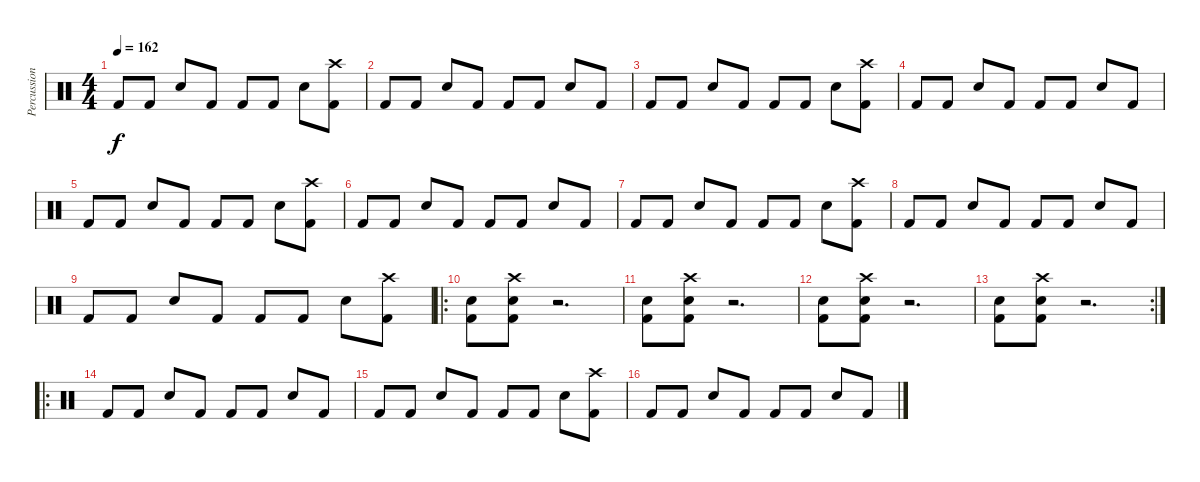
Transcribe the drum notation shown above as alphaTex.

\track ("Percussion" "Percussion") {instrument percussion}
\staff {score}
\articulation defaults
\ts (4 4)
\tempo 162
\clef neutral
\ks c "Kick (hit) 2".8{dy f} "Kick (hit) 2".8 "Snare (hit) 2".8 "Kick (hit) 2".8 "Kick (hit) 2".8 "Kick (hit) 2".8 "Snare (hit) 2".8
("Crash high (hit)" "Kick (hit) 2").8 |
"Kick (hit) 2".8 "Kick (hit) 2".8 "Snare (hit) 2".8 "Kick (hit) 2".8 "Kick (hit) 2".8 "Kick (hit) 2".8 "Snare (hit) 2".8 "Kick (hit) 2".8 |
"Kick (hit) 2".8 "Kick (hit) 2".8 "Snare (hit) 2".8 "Kick (hit) 2".8 "Kick (hit) 2".8 "Kick (hit) 2".8 "Snare (hit) 2".8 ("Crash high (hit)" "Kick (hit) 2").8 |
"Kick (hit) 2".8 "Kick (hit) 2".8 "Snare (hit) 2".8 "Kick (hit) 2".8 "Kick (hit) 2".8 "Kick (hit) 2".8 "Snare (hit) 2".8 "Kick (hit) 2".8 |
"Kick (hit) 2".8 "Kick (hit) 2".8 "Snare (hit) 2".8 "Kick (hit) 2".8 "Kick (hit) 2".8 "Kick (hit) 2".8 "Snare (hit) 2".8 ("Crash high (hit)" "Kick (hit) 2").8 |
"Kick (hit) 2".8 "Kick (hit) 2".8 "Snare (hit) 2".8 "Kick (hit) 2".8 "Kick (hit) 2".8 "Kick (hit) 2".8 "Snare (hit) 2".8 "Kick (hit) 2".8 |
"Kick (hit) 2".8 "Kick (hit) 2".8 "Snare (hit) 2".8 "Kick (hit) 2".8 "Kick (hit) 2".8 "Kick (hit) 2".8 "Snare (hit) 2".8 ("Crash high (hit)" "Kick (hit) 2").8 |
"Kick (hit) 2".8 "Kick (hit) 2".8 "Snare (hit) 2".8 "Kick (hit) 2".8 "Kick (hit) 2".8 "Kick (hit) 2".8 "Snare (hit) 2".8 "Kick (hit) 2".8 |
"Kick (hit) 2".8 "Kick (hit) 2".8 "Snare (hit) 2".8 "Kick (hit) 2".8 "Kick (hit) 2".8 "Kick (hit) 2".8 "Snare (hit) 2".8 ("Crash high (hit)" "Kick (hit) 2").8 |
\ro
("Snare (hit) 2" "Kick (hit) 2").8 ("Crash high (hit)" "Snare (hit) 2" "Kick (hit) 2").8 r.2{d} |
("Snare (hit) 2" "Kick (hit) 2").8 ("Crash high (hit)" "Snare (hit) 2" "Kick (hit) 2").8 r.2{d} |
("Snare (hit) 2" "Kick (hit) 2").8 ("Crash high (hit)" "Snare (hit) 2" "Kick (hit) 2").8 r.2{d} |
\rc 2
("Snare (hit) 2" "Kick (hit) 2").8 ("Crash high (hit)" "Snare (hit) 2" "Kick (hit) 2").8 r.2{d} |
\ro "Kick (hit) 2".8 "Kick (hit) 2".8 "Snare (hit) 2".8 "Kick (hit) 2".8 "Kick (hit) 2".8 "Kick (hit) 2".8 "Snare (hit) 2".8 "Kick (hit) 2".8
|
"Kick (hit) 2".8 "Kick (hit) 2".8 "Snare (hit) 2".8 "Kick (hit) 2".8 "Kick (hit) 2".8 "Kick (hit) 2".8 "Snare (hit) 2".8 ("Crash high (hit)" "Kick (hit) 2").8 |
"Kick (hit) 2".8 "Kick (hit) 2".8 "Snare (hit) 2".8 "Kick (hit) 2".8 "Kick (hit) 2".8 "Kick (hit) 2".8 "Snare (hit) 2".8 "Kick (hit) 2".8
